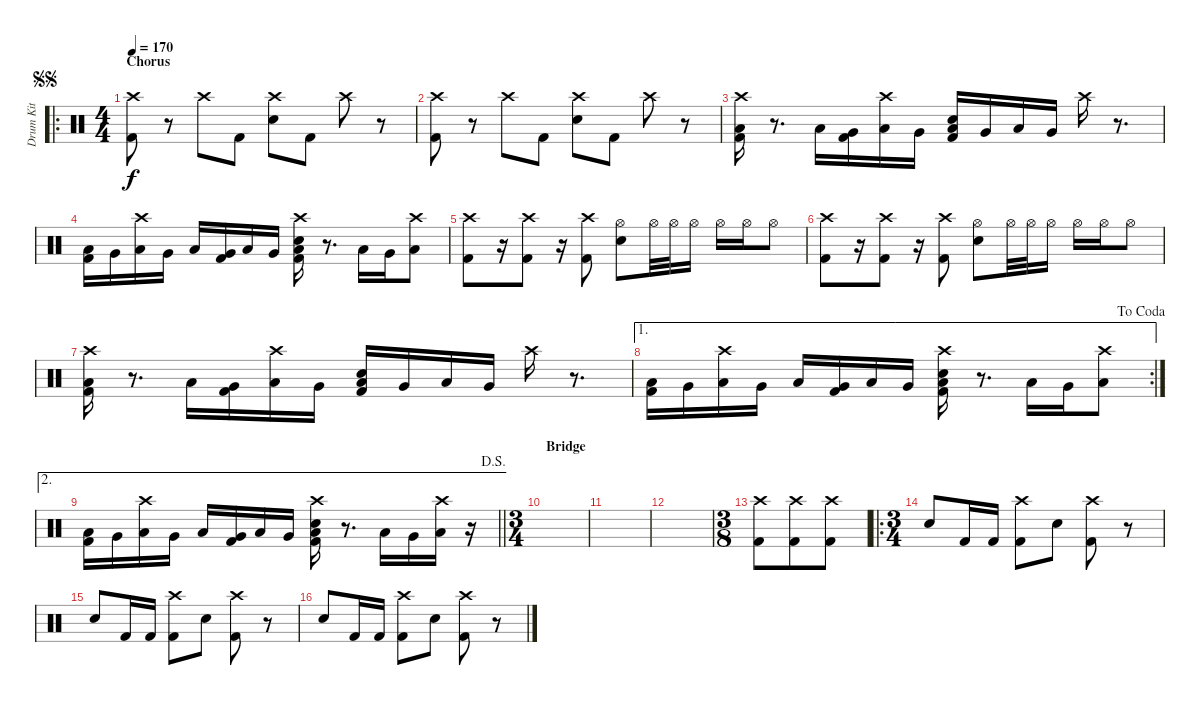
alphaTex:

\track ("Drum Kit" "Drum Kit") {mute instrument percussion}
\staff {score}
\articulation defaults
\ro
\ts (4 4)
\section ("" "Chorus")
\jump segnosegno
\tempo 170
\clef neutral
\ks c
("Crash high (hit)" "Kick (hit) 2").8{dy f} r.8 "Crash high (hit)".8 "Kick (hit) 2".8 ("Crash high (hit)" "Electric Snare (hit)").8 "Kick (hit) 2".8 "Crash high (hit)".8 r.8 |
("Crash high (hit)" "Kick (hit) 2").8 r.8 "Crash high (hit)".8 "Kick (hit) 2".8 ("Crash high (hit)" "Electric Snare (hit)").8 "Kick (hit) 2".8 "Crash high (hit)".8 r.8 |
("Crash high (hit)" "Low Floor Tom (hit)" "Kick (hit) 2").16 r.8{d} "Low Floor Tom (hit)".16 ("Very Low Tom (hit)" "Kick (hit) 2").16 ("Crash high (hit)" "Low Floor Tom (hit)").16 "Very Low Tom (hit)".16 ("Electric Snare (hit)" "Low Floor Tom (hit)" "Kick (hit) 2").16 "Very Low Tom (hit)".16 "Low Floor Tom (hit)".16 "Very Low Tom (hit)".16 "Crash high (hit)".16 r.8{d} |
("Low Floor Tom (hit)" "Kick (hit) 2").16 "Very Low Tom (hit)".16 ("Crash high (hit)" "Low Floor Tom (hit)").16 "Very Low Tom (hit)".16 "Low Floor Tom (hit)".16 ("Very Low Tom (hit)" "Kick (hit) 2").16 "Low Floor Tom (hit)".16 "Very Low Tom (hit)".16 ("Crash high (hit)" "Electric Snare (hit)" "Low Floor Tom (hit)" "Kick (hit) 2").16 r.8{d} "Low Floor Tom (hit)".16 "Very Low Tom (hit)".16 ("Crash high (hit)" "Low Floor Tom (hit)").8 |
("Crash high (hit)" "Kick (hit) 2").8 r.16 ("Crash high (hit)" "Kick (hit) 2").8 r.16 ("Crash high (hit)" "Kick (hit) 2").8 ("Hi-Hat (open)" "Electric Snare (hit)").8 "Hi-Hat (open)".32 "Hi-Hat (open)".32 "Hi-Hat (open)".16 "Hi-Hat (open)".16 "Hi-Hat (open)".16 "Hi-Hat (open)".8 |
("Crash high (hit)" "Kick (hit) 2").8 r.16 ("Crash high (hit)" "Kick (hit) 2").8 r.16 ("Crash high (hit)" "Kick (hit) 2").8 ("Hi-Hat (open)" "Electric Snare (hit)").8 "Hi-Hat (open)".32 "Hi-Hat (open)".32 "Hi-Hat (open)".16 "Hi-Hat (open)".16 "Hi-Hat (open)".16 "Hi-Hat (open)".8 |
("Crash high (hit)" "Low Floor Tom (hit)" "Kick (hit) 2").16 r.8{d} "Low Floor Tom (hit)".16 ("Very Low Tom (hit)" "Kick (hit) 2").16 ("Crash high (hit)" "Low Floor Tom (hit)").16 "Very Low Tom (hit)".16 ("Electric Snare (hit)" "Low Floor Tom (hit)" "Kick (hit) 2").16 "Very Low Tom (hit)".16 "Low Floor Tom (hit)".16 "Very Low Tom (hit)".16 "Crash high (hit)".16 r.8{d} |
\ae 1
\rc 2
\jump dacoda
("Low Floor Tom (hit)" "Kick (hit) 2").16 "Very Low Tom (hit)".16 ("Crash high (hit)" "Low Floor Tom (hit)").16 "Very Low Tom (hit)".16 "Low Floor Tom (hit)".16 ("Very Low Tom (hit)" "Kick (hit) 2").16 "Low Floor Tom (hit)".16 "Very Low Tom (hit)".16 ("Crash high (hit)" "Electric Snare (hit)" "Low Floor Tom (hit)" "Kick (hit) 2").16 r.8{d} "Low Floor Tom (hit)".16 "Very Low Tom (hit)".16 ("Crash high (hit)" "Low Floor Tom (hit)").8 |
\ae 2
\jump dalsegno
\barLineRight lightlight
("Low Floor Tom (hit)" "Kick (hit) 2").16 "Very Low Tom (hit)".16 ("Crash high (hit)" "Low Floor Tom (hit)").16 "Very Low Tom (hit)".16 "Low Floor Tom (hit)".16 ("Very Low Tom (hit)" "Kick (hit) 2").16 "Low Floor Tom (hit)".16 "Very Low Tom (hit)".16 ("Crash high (hit)" "Electric Snare (hit)" "Low Floor Tom (hit)" "Kick (hit) 2").16 r.8{d} "Low Floor Tom (hit)".16 "Very Low Tom (hit)".16 ("Crash high (hit)" "Low Floor Tom (hit)").16 r.16 |
\ts (3 4)
\section ("" "Bridge")
|
|
|
\ts (3 8)
("Crash high (hit)" "Kick (hit) 2").8 ("Crash high (hit)" "Kick (hit) 2").8 ("Crash high (hit)" "Kick (hit) 2").8 |
\ro
\ts (3 4)
"Electric Snare (hit)".8 "Kick (hit) 2".16 "Kick (hit) 2".16 ("Crash high (hit)" "Kick (hit) 2").8 "Electric Snare (hit)".8 ("Crash high (hit)" "Kick (hit) 2").8 r.8 |
"Electric Snare (hit)".8 "Kick (hit) 2".16 "Kick (hit) 2".16 ("Crash high (hit)" "Kick (hit) 2").8 "Electric Snare (hit)".8 ("Crash high (hit)" "Kick (hit) 2").8 r.8 |
"Electric Snare (hit)".8 "Kick (hit) 2".16 "Kick (hit) 2".16 ("Crash high (hit)" "Kick (hit) 2").8 "Electric Snare (hit)".8 ("Crash high (hit)" "Kick (hit) 2").8 r.8
